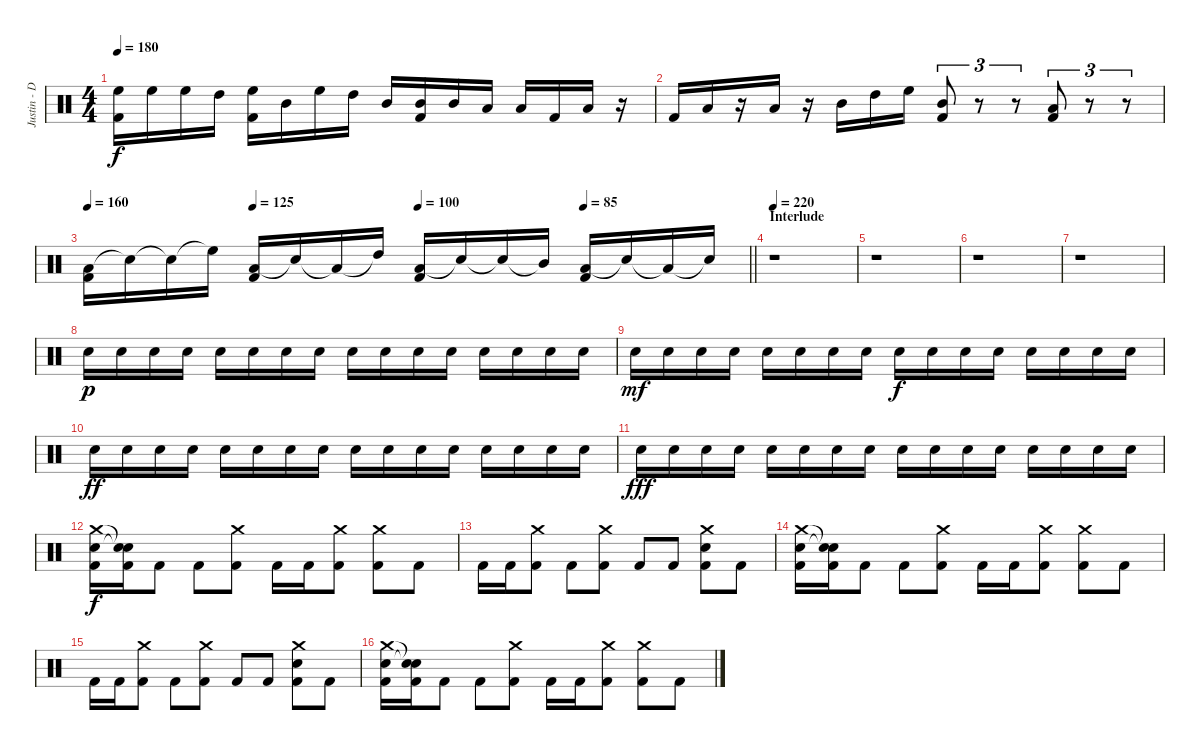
\track ("Justin - Drums" "Justin - D") {instrument percussion}
\staff {score}
\articulation defaults
\ts (4 4)
\tempo 180
\clef neutral
\ks c
("High Floor Tom (hit)" "Kick (hit) 2").16{dy f} "High Floor Tom (hit)".16 "High Floor Tom (hit)".16 "High Tom (hit)".16 ("High Floor Tom (hit)" "Kick (hit) 2").16 "Mid Tom (hit)".16 "High Floor Tom (hit)".16 "High Tom (hit)".16 "Mid Tom (hit)".16 ("Mid Tom (hit)" "Kick (hit) 2").16 "Mid Tom (hit)".16 "Low Tom (hit)".16 "Low Tom (hit)".16 "Kick (hit) 2".16 "Low Tom (hit)".16 r.16 |
"Kick (hit) 2".16 "Low Tom (hit)".16 r.16 "Low Tom (hit)".16 r.16 "Mid Tom (hit)".16 "High Tom (hit)".16 "High Floor Tom (hit)".16 ("Mid Tom (hit)" "Kick (hit) 2").8{tu (3 2)} r.8{tu (3 2)} r.8{tu (3 2)} ("Low Tom (hit)" "Kick (hit) 2").8{tu (3 2)} r.8{tu (3 2)} r.8{tu (3 2)} |
\tempo 160
\tempo (125 0.25)
\tempo (100 0.5)
\tempo (85 0.75)
\barLineRight lightlight
("Low Tom (hit)" "Kick (hit) 2").16 "Snare (hit)"{t}.16 "Snare (hit)"{t}.16 "High Floor Tom (hit)"{t}.16 ("Low Tom (hit)" "Kick (hit) 2").16 "Snare (hit)"{t}.16 "Low Tom (hit)"{t}.16 "High Tom (hit)"{t}.16 ("Low Tom (hit)" "Kick (hit) 2").16 "Snare (hit)"{t}.16 "Snare (hit)"{t}.16 "Mid Tom (hit)"{t}.16 ("Low Tom (hit)" "Kick (hit) 2").16 "Snare (hit)"{t}.16 "Low Tom (hit)"{t}.16 "Snare (hit)"{t}.16 |
\section ("" "Interlude")
\tempo 220
r.1 |
r.1 |
r.1 |
r.1 |
"Snare (hit) 2".16{dy p} "Snare (hit) 2".16 "Snare (hit) 2".16 "Snare (hit) 2".16 "Snare (hit) 2".16 "Snare (hit) 2".16 "Snare (hit) 2".16 "Snare (hit) 2".16 "Snare (hit) 2".16 "Snare (hit) 2".16 "Snare (hit) 2".16 "Snare (hit) 2".16 "Snare (hit) 2".16 "Snare (hit) 2".16 "Snare (hit) 2".16 "Snare (hit) 2".16 |
"Snare (hit) 2".16{dy mf} "Snare (hit) 2".16 "Snare (hit) 2".16 "Snare (hit) 2".16 "Snare (hit) 2".16 "Snare (hit) 2".16 "Snare (hit) 2".16 "Snare (hit) 2".16 "Snare (hit) 2".16{dy f} "Snare (hit) 2".16 "Snare (hit) 2".16 "Snare (hit) 2".16 "Snare (hit) 2".16 "Snare (hit) 2".16 "Snare (hit) 2".16 "Snare (hit) 2".16 |
"Snare (hit) 2".16{dy ff} "Snare (hit) 2".16 "Snare (hit) 2".16 "Snare (hit) 2".16 "Snare (hit) 2".16 "Snare (hit) 2".16 "Snare (hit) 2".16 "Snare (hit) 2".16 "Snare (hit) 2".16 "Snare (hit) 2".16 "Snare (hit) 2".16 "Snare (hit) 2".16 "Snare (hit) 2".16 "Snare (hit) 2".16 "Snare (hit) 2".16 "Snare (hit) 2".16 |
"Snare (hit) 2".16{dy fff} "Snare (hit) 2".16 "Snare (hit) 2".16 "Snare (hit) 2".16 "Snare (hit) 2".16 "Snare (hit) 2".16 "Snare (hit) 2".16 "Snare (hit) 2".16 "Snare (hit) 2".16 "Snare (hit) 2".16 "Snare (hit) 2".16 "Snare (hit) 2".16 "Snare (hit) 2".16 "Snare (hit) 2".16 "Snare (hit) 2".16 "Snare (hit) 2".16 |
("Crash medium (hit)" "Snare (hit) 2" "Kick (hit) 2").16{dy f} ("Snare (hit)"{t} "Snare (hit)"{t} "Kick (hit) 2").16 "Kick (hit) 2".8 "Kick (hit) 2".8 ("Crash medium (hit)" "Kick (hit) 2").8 "Kick (hit) 2".16 "Kick (hit) 2".16 ("Crash medium (hit)" "Kick (hit) 2").8 ("Crash medium (hit)" "Kick (hit) 2").8 "Kick (hit) 2".8 |
"Kick (hit) 2".16 "Kick (hit) 2".16 ("Crash medium (hit)" "Kick (hit) 2").8 "Kick (hit) 2".8 ("Crash medium (hit)" "Kick (hit) 2").8 "Kick (hit) 2".8 "Kick (hit) 2".8 ("Crash medium (hit)" "Snare (hit) 2" "Kick (hit) 2").8 "Kick (hit) 2".8 |
("Crash medium (hit)" "Snare (hit) 2" "Kick (hit) 2").16 ("Snare (hit)"{t} "Snare (hit)"{t} "Kick (hit) 2").16 "Kick (hit) 2".8 "Kick (hit) 2".8 ("Crash medium (hit)" "Kick (hit) 2").8 "Kick (hit) 2".16 "Kick (hit) 2".16 ("Crash medium (hit)" "Kick (hit) 2").8 ("Crash medium (hit)" "Kick (hit) 2").8 "Kick (hit) 2".8 |
"Kick (hit) 2".16 "Kick (hit) 2".16 ("Crash medium (hit)" "Kick (hit) 2").8 "Kick (hit) 2".8 ("Crash medium (hit)" "Kick (hit) 2").8 "Kick (hit) 2".8 "Kick (hit) 2".8 ("Crash medium (hit)" "Snare (hit) 2" "Kick (hit) 2").8 "Kick (hit) 2".8 |
("Crash medium (hit)" "Snare (hit) 2" "Kick (hit) 2").16 ("Snare (hit)"{t} "Snare (hit)"{t} "Kick (hit) 2").16 "Kick (hit) 2".8 "Kick (hit) 2".8 ("Crash medium (hit)" "Kick (hit) 2").8 "Kick (hit) 2".16 "Kick (hit) 2".16 ("Crash medium (hit)" "Kick (hit) 2").8 ("Crash medium (hit)" "Kick (hit) 2").8 "Kick (hit) 2".8
